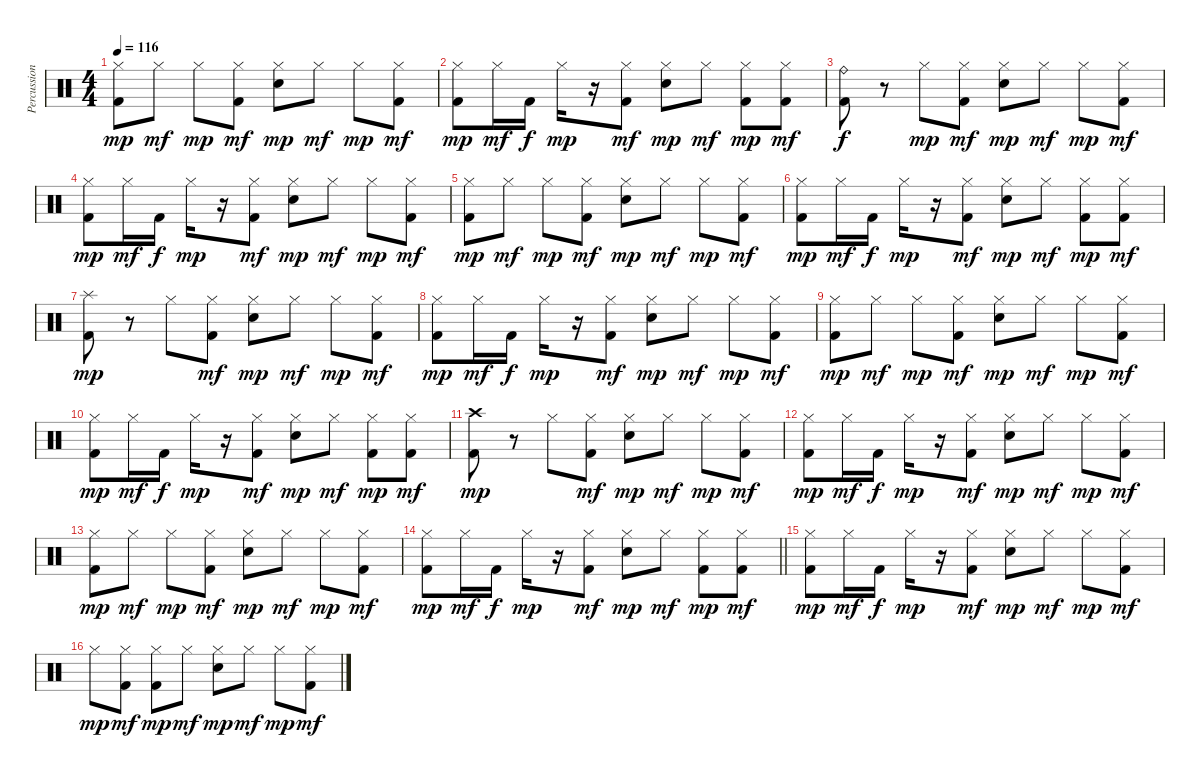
\track ("Percussion (Moose)" "Percussion") {instrument percussion}
\staff {score}
\articulation defaults
\ts (4 4)
\tempo 116
\clef neutral
\ks c
("Kick (hit) 2" "Hi-Hat (closed)").8{dy mp} "Hi-Hat (closed)".8{dy mf} "Hi-Hat (closed)".8{dy mp} ("Kick (hit) 2" "Hi-Hat (closed)").8{dy mf} ("Snare (hit) 2" "Hi-Hat (closed)").8{dy mp} "Hi-Hat (closed)".8{dy mf} "Hi-Hat (closed)".8{dy mp} ("Kick (hit) 2" "Hi-Hat (closed)").8{dy mf} |
("Kick (hit) 2" "Hi-Hat (closed)").8{dy mp} "Hi-Hat (closed)".16{dy mf} "Kick (hit) 2".16{dy f} "Hi-Hat (closed)".16{dy mp} r.16 ("Kick (hit) 2" "Hi-Hat (closed)").8{dy mf} ("Snare (hit) 2" "Hi-Hat (closed)").8{dy mp} "Hi-Hat (closed)".8{dy mf} ("Kick (hit) 2" "Hi-Hat (closed)").8{dy mp} ("Kick (hit) 2" "Hi-Hat (closed)").8{dy mf} |
("Kick (hit) 2" "Ride (bell)").8{dy f} r.8 "Hi-Hat (closed)".8{dy mp} ("Kick (hit) 2" "Hi-Hat (closed)").8{dy mf} ("Snare (hit) 2" "Hi-Hat (closed)").8{dy mp} "Hi-Hat (closed)".8{dy mf} "Hi-Hat (closed)".8{dy mp} ("Kick (hit) 2" "Hi-Hat (closed)").8{dy mf} |
("Kick (hit) 2" "Hi-Hat (closed)").8{dy mp} "Hi-Hat (closed)".16{dy mf} "Kick (hit) 2".16{dy f} "Hi-Hat (closed)".16{dy mp} r.16 ("Kick (hit) 2" "Hi-Hat (closed)").8{dy mf} ("Snare (hit) 2" "Hi-Hat (closed)").8{dy mp} "Hi-Hat (closed)".8{dy mf} "Hi-Hat (closed)".8{dy mp} ("Kick (hit) 2" "Hi-Hat (closed)").8{dy mf} |
("Kick (hit) 2" "Hi-Hat (closed)").8{dy mp} "Hi-Hat (closed)".8{dy mf} "Hi-Hat (closed)".8{dy mp} ("Kick (hit) 2" "Hi-Hat (closed)").8{dy mf} ("Snare (hit) 2" "Hi-Hat (closed)").8{dy mp} "Hi-Hat (closed)".8{dy mf} "Hi-Hat (closed)".8{dy mp} ("Kick (hit) 2" "Hi-Hat (closed)").8{dy mf} |
("Kick (hit) 2" "Hi-Hat (closed)").8{dy mp} "Hi-Hat (closed)".16{dy mf} "Kick (hit) 2".16{dy f} "Hi-Hat (closed)".16{dy mp} r.16 ("Kick (hit) 2" "Hi-Hat (closed)").8{dy mf} ("Snare (hit) 2" "Hi-Hat (closed)").8{dy mp} "Hi-Hat (closed)".8{dy mf} ("Kick (hit) 2" "Hi-Hat (closed)").8{dy mp} ("Kick (hit) 2" "Hi-Hat (closed)").8{dy mf} |
("Kick (hit) 2" "Splash (hit)").8{dy mp} r.8 "Hi-Hat (closed)".8 ("Kick (hit) 2" "Hi-Hat (closed)").8{dy mf} ("Snare (hit) 2" "Hi-Hat (closed)").8{dy mp} "Hi-Hat (closed)".8{dy mf} "Hi-Hat (closed)".8{dy mp} ("Kick (hit) 2" "Hi-Hat (closed)").8{dy mf} |
("Kick (hit) 2" "Hi-Hat (closed)").8{dy mp} "Hi-Hat (closed)".16{dy mf} "Kick (hit) 2".16{dy f} "Hi-Hat (closed)".16{dy mp} r.16 ("Kick (hit) 2" "Hi-Hat (closed)").8{dy mf} ("Snare (hit) 2" "Hi-Hat (closed)").8{dy mp} "Hi-Hat (closed)".8{dy mf} "Hi-Hat (closed)".8{dy mp} ("Kick (hit) 2" "Hi-Hat (closed)").8{dy mf} |
("Kick (hit) 2" "Hi-Hat (closed)").8{dy mp} "Hi-Hat (closed)".8{dy mf} "Hi-Hat (closed)".8{dy mp} ("Kick (hit) 2" "Hi-Hat (closed)").8{dy mf} ("Snare (hit) 2" "Hi-Hat (closed)").8{dy mp} "Hi-Hat (closed)".8{dy mf} "Hi-Hat (closed)".8{dy mp} ("Kick (hit) 2" "Hi-Hat (closed)").8{dy mf} |
("Kick (hit) 2" "Hi-Hat (closed)").8{dy mp} "Hi-Hat (closed)".16{dy mf} "Kick (hit) 2".16{dy f} "Hi-Hat (closed)".16{dy mp} r.16 ("Kick (hit) 2" "Hi-Hat (closed)").8{dy mf} ("Snare (hit) 2" "Hi-Hat (closed)").8{dy mp} "Hi-Hat (closed)".8{dy mf} ("Kick (hit) 2" "Hi-Hat (closed)").8{dy mp} ("Kick (hit) 2" "Hi-Hat (closed)").8{dy mf} |
("Kick (hit) 2" "Crash high (hit)").8{dy mp} r.8 "Hi-Hat (closed)".8 ("Kick (hit) 2" "Hi-Hat (closed)").8{dy mf} ("Snare (hit) 2" "Hi-Hat (closed)").8{dy mp} "Hi-Hat (closed)".8{dy mf} "Hi-Hat (closed)".8{dy mp} ("Kick (hit) 2" "Hi-Hat (closed)").8{dy mf} |
("Kick (hit) 2" "Hi-Hat (closed)").8{dy mp} "Hi-Hat (closed)".16{dy mf} "Kick (hit) 2".16{dy f} "Hi-Hat (closed)".16{dy mp} r.16 ("Kick (hit) 2" "Hi-Hat (closed)").8{dy mf} ("Snare (hit) 2" "Hi-Hat (closed)").8{dy mp} "Hi-Hat (closed)".8{dy mf} "Hi-Hat (closed)".8{dy mp} ("Kick (hit) 2" "Hi-Hat (closed)").8{dy mf} |
("Kick (hit) 2" "Hi-Hat (closed)").8{dy mp} "Hi-Hat (closed)".8{dy mf} "Hi-Hat (closed)".8{dy mp} ("Kick (hit) 2" "Hi-Hat (closed)").8{dy mf} ("Snare (hit) 2" "Hi-Hat (closed)").8{dy mp} "Hi-Hat (closed)".8{dy mf} "Hi-Hat (closed)".8{dy mp} ("Kick (hit) 2" "Hi-Hat (closed)").8{dy mf} |
\barLineRight lightlight
("Kick (hit) 2" "Hi-Hat (closed)").8{dy mp} "Hi-Hat (closed)".16{dy mf} "Kick (hit) 2".16{dy f} "Hi-Hat (closed)".16{dy mp} r.16 ("Kick (hit) 2" "Hi-Hat (closed)").8{dy mf} ("Snare (hit) 2" "Hi-Hat (closed)").8{dy mp} "Hi-Hat (closed)".8{dy mf} ("Kick (hit) 2" "Hi-Hat (closed)").8{dy mp} ("Kick (hit) 2" "Hi-Hat (closed)").8{dy mf} |
("Kick (hit) 2" "Hi-Hat (closed)").8{dy mp} "Hi-Hat (closed)".16{dy mf} "Kick (hit) 2".16{dy f} "Hi-Hat (closed)".16{dy mp} r.16 ("Kick (hit) 2" "Hi-Hat (closed)").8{dy mf} ("Snare (hit) 2" "Hi-Hat (closed)").8{dy mp} "Hi-Hat (closed)".8{dy mf} "Hi-Hat (closed)".8{dy mp} ("Kick (hit) 2" "Hi-Hat (closed)").8{dy mf} |
"Hi-Hat (closed)".8{dy mp} ("Kick (hit) 2" "Hi-Hat (closed)").8{dy mf} ("Kick (hit) 2" "Hi-Hat (closed)").8{dy mp} "Hi-Hat (closed)".8{dy mf} ("Snare (hit) 2" "Hi-Hat (closed)").8{dy mp} "Hi-Hat (closed)".8{dy mf} "Hi-Hat (closed)".8{dy mp} ("Kick (hit) 2" "Hi-Hat (closed)").8{dy mf}
